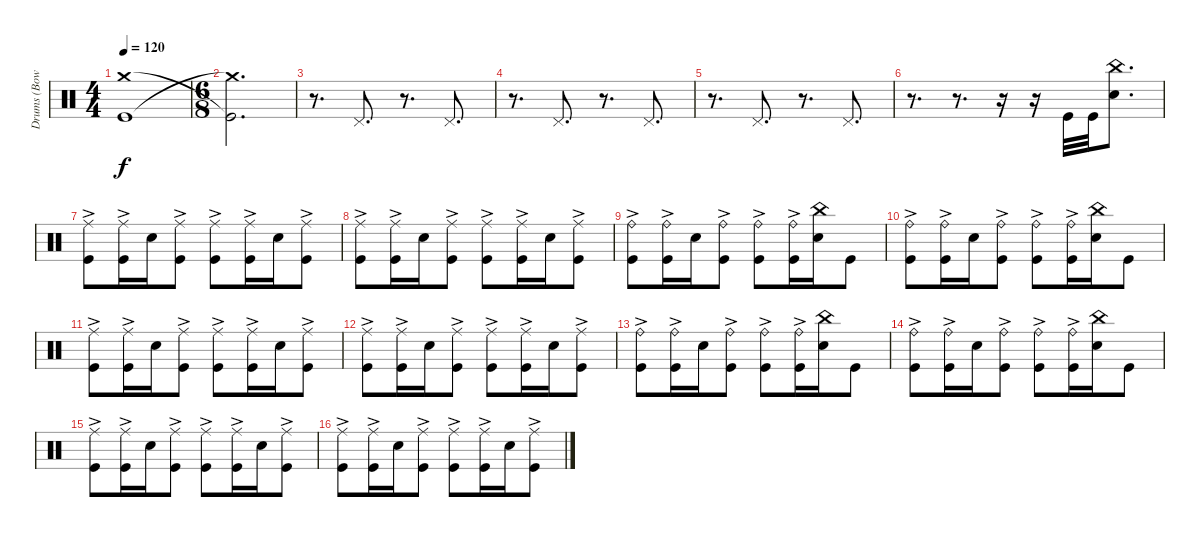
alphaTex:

\track ("Drums (Bowders)" "Drums (Bow") {instrument percussion}
\staff {score}
\articulation defaults
\ts (4 4)
\tempo 120
\clef neutral
\ks c
("Kick (hit)"{t} "Crash medium (hit)"{t}).1{dy f} |
\ts (6 8)
("Crash medium (hit)"{t} "Kick (hit)"{t}).2{d} |
r.8{d} "Pedal Hi-Hat (hit)".8{d} r.8{d} "Pedal Hi-Hat (hit)".8{d} |
r.8{d} "Pedal Hi-Hat (hit)".8{d} r.8{d} "Pedal Hi-Hat (hit)".8{d} |
r.8{d} "Pedal Hi-Hat (hit)".8{d} r.8{d} "Pedal Hi-Hat (hit)".8{d} |
r.8{d} r.8{d} r.16 r.16 "Kick (hit)".32 "Kick (hit)".32 ("Snare (hit) 2" "China (hit)").8{d} |
("Kick (hit)" "Ride (middle)"{ac}).8 ("Kick (hit)" "Ride (middle)"{ac}).16 "Snare (hit) 2".16 ("Kick (hit)" "Ride (middle)"{ac}).8 ("Kick (hit)" "Ride (middle)"{ac}).8 ("Kick (hit)" "Ride (middle)"{ac}).16 "Snare (hit) 2".16 ("Kick (hit)" "Ride (middle)"{ac}).8 |
("Kick (hit)" "Ride (middle)"{ac}).8 ("Kick (hit)" "Ride (middle)"{ac}).16 "Snare (hit) 2".16 ("Kick (hit)" "Ride (middle)"{ac}).8 ("Kick (hit)" "Ride (middle)"{ac}).8 ("Kick (hit)" "Ride (middle)"{ac}).16 "Snare (hit) 2".16 ("Kick (hit)" "Ride (middle)"{ac}).8 |
("Kick (hit)" "Ride (bell)"{ac}).8 ("Kick (hit)" "Ride (bell)"{ac}).16 "Snare (hit) 2".16 ("Kick (hit)" "Ride (bell)"{ac}).8 ("Kick (hit)" "Ride (bell)"{ac}).8 ("Kick (hit)" "Ride (bell)"{ac}).16 ("Snare (hit) 2" "China (hit)").16 "Kick (hit)".8 |
("Kick (hit)" "Ride (bell)"{ac}).8 ("Kick (hit)" "Ride (bell)"{ac}).16 "Snare (hit) 2".16 ("Kick (hit)" "Ride (bell)"{ac}).8 ("Kick (hit)" "Ride (bell)"{ac}).8 ("Kick (hit)" "Ride (bell)"{ac}).16 ("Snare (hit) 2" "China (hit)").16 "Kick (hit)".8 |
("Kick (hit)" "Ride (middle)"{ac}).8 ("Kick (hit)" "Ride (middle)"{ac}).16 "Snare (hit) 2".16 ("Kick (hit)" "Ride (middle)"{ac}).8 ("Kick (hit)" "Ride (middle)"{ac}).8 ("Kick (hit)" "Ride (middle)"{ac}).16 "Snare (hit) 2".16 ("Kick (hit)" "Ride (middle)"{ac}).8 |
("Kick (hit)" "Ride (middle)"{ac}).8 ("Kick (hit)" "Ride (middle)"{ac}).16 "Snare (hit) 2".16 ("Kick (hit)" "Ride (middle)"{ac}).8 ("Kick (hit)" "Ride (middle)"{ac}).8 ("Kick (hit)" "Ride (middle)"{ac}).16 "Snare (hit) 2".16 ("Kick (hit)" "Ride (middle)"{ac}).8 |
("Kick (hit)" "Ride (bell)"{ac}).8 ("Kick (hit)" "Ride (bell)"{ac}).16 "Snare (hit) 2".16 ("Kick (hit)" "Ride (bell)"{ac}).8 ("Kick (hit)" "Ride (bell)"{ac}).8 ("Kick (hit)" "Ride (bell)"{ac}).16 ("Snare (hit) 2" "China (hit)").16 "Kick (hit)".8 |
("Kick (hit)" "Ride (bell)"{ac}).8 ("Kick (hit)" "Ride (bell)"{ac}).16 "Snare (hit) 2".16 ("Kick (hit)" "Ride (bell)"{ac}).8 ("Kick (hit)" "Ride (bell)"{ac}).8 ("Kick (hit)" "Ride (bell)"{ac}).16 ("Snare (hit) 2" "China (hit)").16 "Kick (hit)".8 |
("Kick (hit)" "Ride (middle)"{ac}).8 ("Kick (hit)" "Ride (middle)"{ac}).16 "Snare (hit) 2".16 ("Kick (hit)" "Ride (middle)"{ac}).8 ("Kick (hit)" "Ride (middle)"{ac}).8 ("Kick (hit)" "Ride (middle)"{ac}).16 "Snare (hit) 2".16 ("Kick (hit)" "Ride (middle)"{ac}).8 |
("Kick (hit)" "Ride (middle)"{ac}).8 ("Kick (hit)" "Ride (middle)"{ac}).16 "Snare (hit) 2".16 ("Kick (hit)" "Ride (middle)"{ac}).8 ("Kick (hit)" "Ride (middle)"{ac}).8 ("Kick (hit)" "Ride (middle)"{ac}).16 "Snare (hit) 2".16 ("Kick (hit)" "Ride (middle)"{ac}).8
